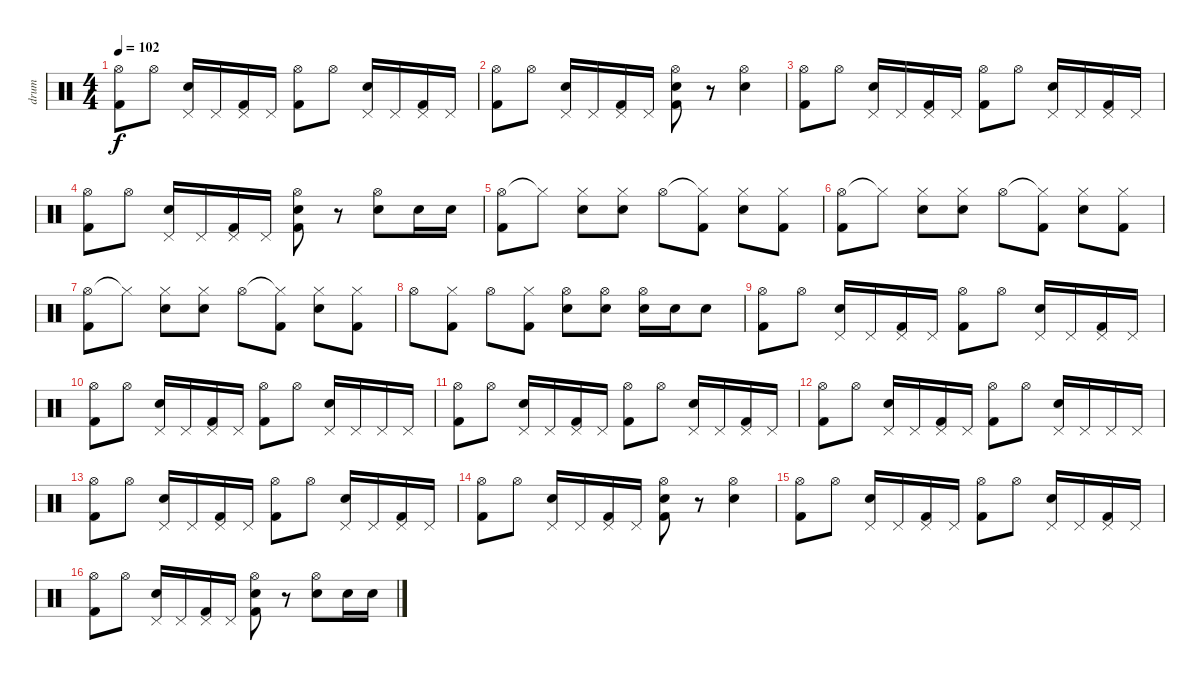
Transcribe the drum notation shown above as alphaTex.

\track ("drum" "drum") {instrument percussion}
\staff {score}
\articulation defaults
\ts (4 4)
\tempo 102
\clef neutral
\ks c
("Hi-Hat (open)" "Kick (hit) 2").8{dy f} "Hi-Hat (open)".8 ("Pedal Hi-Hat (hit)" "Electric Snare (hit)").16 "Pedal Hi-Hat (hit)".16 ("Pedal Hi-Hat (hit)" "Kick (hit) 2").16 "Pedal Hi-Hat (hit)".16 ("Hi-Hat (open)" "Kick (hit) 2").8 "Hi-Hat (open)".8 ("Pedal Hi-Hat (hit)" "Electric Snare (hit)").16 "Pedal Hi-Hat (hit)".16 ("Pedal Hi-Hat (hit)" "Kick (hit) 2").16 "Pedal Hi-Hat (hit)".16 |
("Hi-Hat (open)" "Kick (hit) 2").8 "Hi-Hat (open)".8 ("Pedal Hi-Hat (hit)" "Electric Snare (hit)").16 "Pedal Hi-Hat (hit)".16 ("Pedal Hi-Hat (hit)" "Kick (hit) 2").16 "Pedal Hi-Hat (hit)".16 ("Hi-Hat (open)" "Electric Snare (hit)" "Kick (hit) 2").8 r.8 ("Hi-Hat (open)" "Electric Snare (hit)").4 |
("Hi-Hat (open)" "Kick (hit) 2").8 "Hi-Hat (open)".8 ("Pedal Hi-Hat (hit)" "Electric Snare (hit)").16 "Pedal Hi-Hat (hit)".16 ("Pedal Hi-Hat (hit)" "Kick (hit) 2").16 "Pedal Hi-Hat (hit)".16 ("Hi-Hat (open)" "Kick (hit) 2").8 "Hi-Hat (open)".8 ("Pedal Hi-Hat (hit)" "Electric Snare (hit)").16 "Pedal Hi-Hat (hit)".16 ("Pedal Hi-Hat (hit)" "Kick (hit) 2").16 "Pedal Hi-Hat (hit)".16 |
("Hi-Hat (open)" "Kick (hit) 2").8 "Hi-Hat (open)".8 ("Pedal Hi-Hat (hit)" "Electric Snare (hit)").16 "Pedal Hi-Hat (hit)".16 ("Pedal Hi-Hat (hit)" "Kick (hit) 2").16 "Pedal Hi-Hat (hit)".16 ("Hi-Hat (open)" "Electric Snare (hit)" "Kick (hit) 2").8 r.8 ("Hi-Hat (open)" "Electric Snare (hit)").8 "Electric Snare (hit)".16 "Electric Snare (hit)".16 |
("Hi-Hat (open)" "Kick (hit) 2").8 "Hi-Hat (closed)"{t}.8 ("Hi-Hat (closed)" "Electric Snare (hit)").8 ("Hi-Hat (closed)" "Electric Snare (hit)").8 "Hi-Hat (open)".8 ("Hi-Hat (closed)"{t} "Kick (hit) 2").8 ("Hi-Hat (closed)" "Electric Snare (hit)").8 ("Hi-Hat (closed)" "Kick (hit) 2").8 |
("Hi-Hat (open)" "Kick (hit) 2").8 "Hi-Hat (closed)"{t}.8 ("Hi-Hat (closed)" "Electric Snare (hit)").8 ("Hi-Hat (closed)" "Electric Snare (hit)").8 "Hi-Hat (open)".8 ("Hi-Hat (closed)"{t} "Kick (hit) 2").8 ("Hi-Hat (closed)" "Electric Snare (hit)").8 ("Hi-Hat (closed)" "Kick (hit) 2").8 |
("Hi-Hat (open)" "Kick (hit) 2").8 "Hi-Hat (closed)"{t}.8 ("Hi-Hat (closed)" "Electric Snare (hit)").8 ("Hi-Hat (closed)" "Electric Snare (hit)").8 "Hi-Hat (open)".8 ("Hi-Hat (closed)"{t} "Kick (hit) 2").8 ("Hi-Hat (closed)" "Electric Snare (hit)").8 ("Hi-Hat (closed)" "Kick (hit) 2").8 |
"Hi-Hat (open)".8 ("Hi-Hat (closed)" "Kick (hit) 2").8 "Hi-Hat (open)".8 ("Hi-Hat (closed)" "Kick (hit) 2").8 ("Hi-Hat (open)" "Electric Snare (hit)").8 ("Hi-Hat (open)" "Electric Snare (hit)").8 ("Hi-Hat (open)" "Electric Snare (hit)").16 "Electric Snare (hit)".16 "Electric Snare (hit)".8 |
("Hi-Hat (open)" "Kick (hit) 2").8 "Hi-Hat (open)".8 ("Pedal Hi-Hat (hit)" "Electric Snare (hit)").16 "Pedal Hi-Hat (hit)".16 ("Pedal Hi-Hat (hit)" "Kick (hit) 2").16 "Pedal Hi-Hat (hit)".16 ("Hi-Hat (open)" "Kick (hit) 2").8 "Hi-Hat (open)".8 ("Pedal Hi-Hat (hit)" "Electric Snare (hit)").16 "Pedal Hi-Hat (hit)".16 ("Pedal Hi-Hat (hit)" "Kick (hit) 2").16 "Pedal Hi-Hat (hit)".16 |
("Hi-Hat (open)" "Kick (hit) 2").8 "Hi-Hat (open)".8 ("Pedal Hi-Hat (hit)" "Electric Snare (hit)").16 "Pedal Hi-Hat (hit)".16 ("Pedal Hi-Hat (hit)" "Kick (hit) 2").16 "Pedal Hi-Hat (hit)".16 ("Hi-Hat (open)" "Kick (hit) 2").8 "Hi-Hat (open)".8 ("Pedal Hi-Hat (hit)" "Electric Snare (hit)").16 "Pedal Hi-Hat (hit)".16 "Pedal Hi-Hat (hit)".16 "Pedal Hi-Hat (hit)".16 |
("Hi-Hat (open)" "Kick (hit) 2").8 "Hi-Hat (open)".8 ("Pedal Hi-Hat (hit)" "Electric Snare (hit)").16 "Pedal Hi-Hat (hit)".16 ("Pedal Hi-Hat (hit)" "Kick (hit) 2").16 "Pedal Hi-Hat (hit)".16 ("Hi-Hat (open)" "Kick (hit) 2").8 "Hi-Hat (open)".8 ("Pedal Hi-Hat (hit)" "Electric Snare (hit)").16 "Pedal Hi-Hat (hit)".16 ("Pedal Hi-Hat (hit)" "Kick (hit) 2").16 "Pedal Hi-Hat (hit)".16 |
("Hi-Hat (open)" "Kick (hit) 2").8 "Hi-Hat (open)".8 ("Pedal Hi-Hat (hit)" "Electric Snare (hit)").16 "Pedal Hi-Hat (hit)".16 ("Pedal Hi-Hat (hit)" "Kick (hit) 2").16 "Pedal Hi-Hat (hit)".16 ("Hi-Hat (open)" "Kick (hit) 2").8 "Hi-Hat (open)".8 ("Pedal Hi-Hat (hit)" "Electric Snare (hit)").16 "Pedal Hi-Hat (hit)".16 "Pedal Hi-Hat (hit)".16 "Pedal Hi-Hat (hit)".16 |
("Hi-Hat (open)" "Kick (hit) 2").8 "Hi-Hat (open)".8 ("Pedal Hi-Hat (hit)" "Electric Snare (hit)").16 "Pedal Hi-Hat (hit)".16 ("Pedal Hi-Hat (hit)" "Kick (hit) 2").16 "Pedal Hi-Hat (hit)".16 ("Hi-Hat (open)" "Kick (hit) 2").8 "Hi-Hat (open)".8 ("Pedal Hi-Hat (hit)" "Electric Snare (hit)").16 "Pedal Hi-Hat (hit)".16 ("Pedal Hi-Hat (hit)" "Kick (hit) 2").16 "Pedal Hi-Hat (hit)".16 |
("Hi-Hat (open)" "Kick (hit) 2").8 "Hi-Hat (open)".8 ("Pedal Hi-Hat (hit)" "Electric Snare (hit)").16 "Pedal Hi-Hat (hit)".16 ("Pedal Hi-Hat (hit)" "Kick (hit) 2").16 "Pedal Hi-Hat (hit)".16 ("Hi-Hat (open)" "Electric Snare (hit)" "Kick (hit) 2").8 r.8 ("Hi-Hat (open)" "Electric Snare (hit)").4 |
("Hi-Hat (open)" "Kick (hit) 2").8 "Hi-Hat (open)".8 ("Pedal Hi-Hat (hit)" "Electric Snare (hit)").16 "Pedal Hi-Hat (hit)".16 ("Pedal Hi-Hat (hit)" "Kick (hit) 2").16 "Pedal Hi-Hat (hit)".16 ("Hi-Hat (open)" "Kick (hit) 2").8 "Hi-Hat (open)".8 ("Pedal Hi-Hat (hit)" "Electric Snare (hit)").16 "Pedal Hi-Hat (hit)".16 ("Pedal Hi-Hat (hit)" "Kick (hit) 2").16 "Pedal Hi-Hat (hit)".16 |
("Hi-Hat (open)" "Kick (hit) 2").8 "Hi-Hat (open)".8 ("Pedal Hi-Hat (hit)" "Electric Snare (hit)").16 "Pedal Hi-Hat (hit)".16 ("Pedal Hi-Hat (hit)" "Kick (hit) 2").16 "Pedal Hi-Hat (hit)".16 ("Hi-Hat (open)" "Electric Snare (hit)" "Kick (hit) 2").8 r.8 ("Hi-Hat (open)" "Electric Snare (hit)").8 "Electric Snare (hit)".16 "Electric Snare (hit)".16
